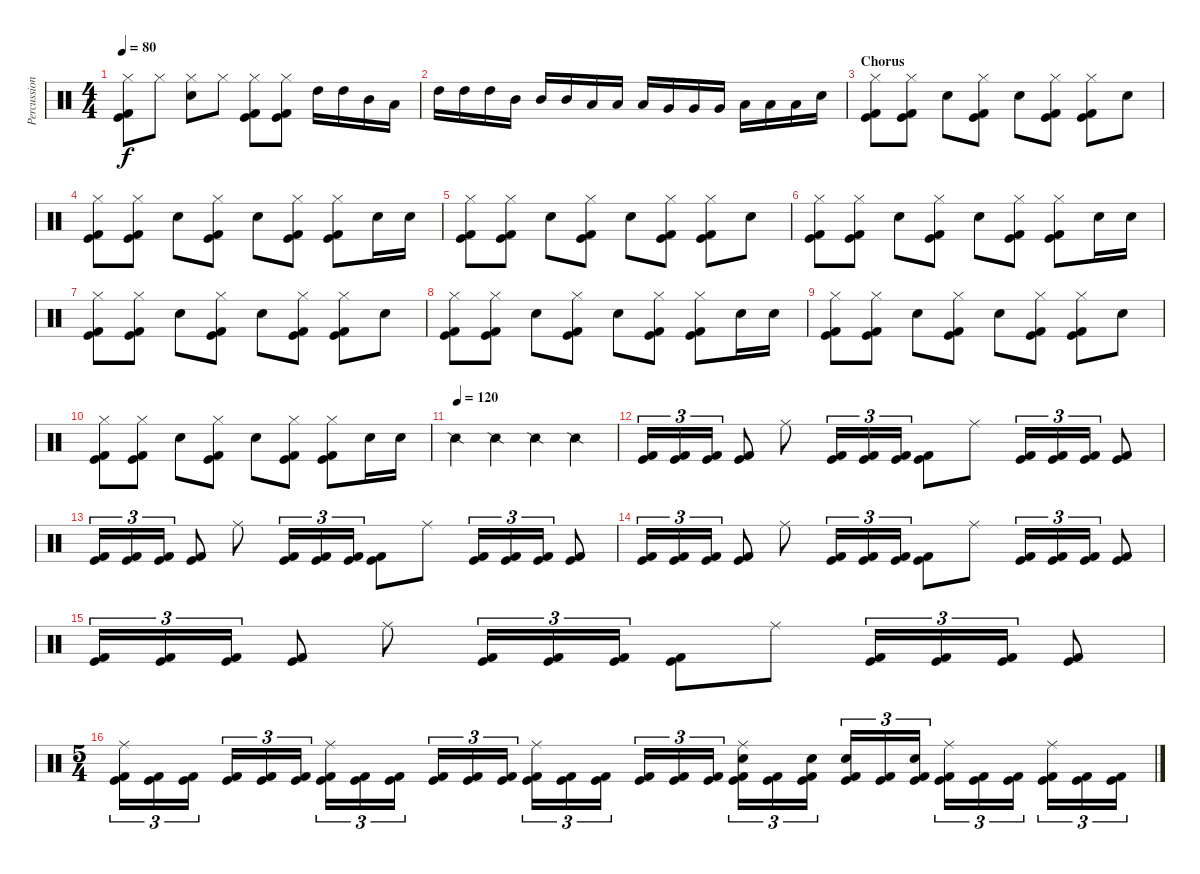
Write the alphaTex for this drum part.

\track ("Percussion" "Percussion") {instrument percussion}
\staff {score}
\articulation defaults
\ts (4 4)
\tempo 80
\clef neutral
\ks c
("Hi-Hat (closed)" "Kick (hit) 2" "Kick (hit)").8{dy f} "Hi-Hat (closed)".8 ("Hi-Hat (closed)" "Snare (hit) 2").8 "Hi-Hat (closed)".8 ("Hi-Hat (closed)" "Kick (hit) 2" "Kick (hit)").8 ("Hi-Hat (closed)" "Kick (hit) 2" "Kick (hit)").8 "High Tom (hit)".16 "High Tom (hit)".16 "Mid Tom (hit)".16 "Low Tom (hit)".16 |
"High Tom (hit)".16 "High Tom (hit)".16 "High Tom (hit)".16 "Mid Tom (hit)".16 "Mid Tom (hit)".16 "Mid Tom (hit)".16 "Low Tom (hit)".16 "Low Tom (hit)".16 "Low Tom (hit)".16 "Very Low Tom (hit)".16 "Very Low Tom (hit)".16 "Very Low Tom (hit)".16 "Low Floor Tom (hit)".16 "Low Floor Tom (hit)".16 "Low Floor Tom (hit)".16 "Snare (hit) 2".16 |
\section ("" "Chorus")
("Hi-Hat (closed)" "Kick (hit) 2" "Kick (hit)").8 ("Hi-Hat (closed)" "Kick (hit) 2" "Kick (hit)").8 "Snare (hit) 2".8 ("Hi-Hat (closed)" "Kick (hit) 2" "Kick (hit)").8 "Snare (hit) 2".8 ("Hi-Hat (closed)" "Kick (hit) 2" "Kick (hit)").8 ("Hi-Hat (closed)" "Kick (hit) 2" "Kick (hit)").8 "Snare (hit) 2".8 |
("Hi-Hat (closed)" "Kick (hit) 2" "Kick (hit)").8 ("Hi-Hat (closed)" "Kick (hit) 2" "Kick (hit)").8 "Snare (hit) 2".8 ("Hi-Hat (closed)" "Kick (hit) 2" "Kick (hit)").8 "Snare (hit) 2".8 ("Hi-Hat (closed)" "Kick (hit) 2" "Kick (hit)").8 ("Hi-Hat (closed)" "Kick (hit) 2" "Kick (hit)").8 "Snare (hit) 2".16 "Snare (hit) 2".16 |
("Hi-Hat (closed)" "Kick (hit) 2" "Kick (hit)").8 ("Hi-Hat (closed)" "Kick (hit) 2" "Kick (hit)").8 "Snare (hit) 2".8 ("Hi-Hat (closed)" "Kick (hit) 2" "Kick (hit)").8 "Snare (hit) 2".8 ("Hi-Hat (closed)" "Kick (hit) 2" "Kick (hit)").8 ("Hi-Hat (closed)" "Kick (hit) 2" "Kick (hit)").8 "Snare (hit) 2".8 |
("Hi-Hat (closed)" "Kick (hit) 2" "Kick (hit)").8 ("Hi-Hat (closed)" "Kick (hit) 2" "Kick (hit)").8 "Snare (hit) 2".8 ("Hi-Hat (closed)" "Kick (hit) 2" "Kick (hit)").8 "Snare (hit) 2".8 ("Hi-Hat (closed)" "Kick (hit) 2" "Kick (hit)").8 ("Hi-Hat (closed)" "Kick (hit) 2" "Kick (hit)").8 "Snare (hit) 2".16 "Snare (hit) 2".16 |
("Hi-Hat (closed)" "Kick (hit) 2" "Kick (hit)").8 ("Hi-Hat (closed)" "Kick (hit) 2" "Kick (hit)").8 "Snare (hit) 2".8 ("Hi-Hat (closed)" "Kick (hit) 2" "Kick (hit)").8 "Snare (hit) 2".8 ("Hi-Hat (closed)" "Kick (hit) 2" "Kick (hit)").8 ("Hi-Hat (closed)" "Kick (hit) 2" "Kick (hit)").8 "Snare (hit) 2".8 |
("Hi-Hat (closed)" "Kick (hit) 2" "Kick (hit)").8 ("Hi-Hat (closed)" "Kick (hit) 2" "Kick (hit)").8 "Snare (hit) 2".8 ("Hi-Hat (closed)" "Kick (hit) 2" "Kick (hit)").8 "Snare (hit) 2".8 ("Hi-Hat (closed)" "Kick (hit) 2" "Kick (hit)").8 ("Hi-Hat (closed)" "Kick (hit) 2" "Kick (hit)").8 "Snare (hit) 2".16 "Snare (hit) 2".16 |
("Hi-Hat (closed)" "Kick (hit) 2" "Kick (hit)").8 ("Hi-Hat (closed)" "Kick (hit) 2" "Kick (hit)").8 "Snare (hit) 2".8 ("Hi-Hat (closed)" "Kick (hit) 2" "Kick (hit)").8 "Snare (hit) 2".8 ("Hi-Hat (closed)" "Kick (hit) 2" "Kick (hit)").8 ("Hi-Hat (closed)" "Kick (hit) 2" "Kick (hit)").8 "Snare (hit) 2".8 |
("Hi-Hat (closed)" "Kick (hit) 2" "Kick (hit)").8 ("Hi-Hat (closed)" "Kick (hit) 2" "Kick (hit)").8 "Snare (hit) 2".8 ("Hi-Hat (closed)" "Kick (hit) 2" "Kick (hit)").8 "Snare (hit) 2".8 ("Hi-Hat (closed)" "Kick (hit) 2" "Kick (hit)").8 ("Hi-Hat (closed)" "Kick (hit) 2" "Kick (hit)").8 "Snare (hit) 2".16 "Snare (hit) 2".16 |
\tempo (120)
"Snare (side stick) 2".4 "Snare (side stick) 2".4 "Snare (side stick) 2".4 "Snare (side stick) 2".4 |
("Kick (hit) 2" "Kick (hit)").16{tu (3 2)} ("Kick (hit) 2" "Kick (hit)").16{tu (3 2)} ("Kick (hit) 2" "Kick (hit)").16{tu (3 2)} ("Kick (hit) 2" "Kick (hit)").8 "Ride (middle)".8 ("Kick (hit) 2" "Kick (hit)").16{tu (3 2)} ("Kick (hit) 2" "Kick (hit)").16{tu (3 2)} ("Kick (hit) 2" "Kick (hit)").16{tu (3 2)} ("Kick (hit) 2" "Kick (hit)").8 "Ride (middle)".8 ("Kick (hit) 2" "Kick (hit)").16{tu (3 2)} ("Kick (hit) 2" "Kick (hit)").16{tu (3 2)} ("Kick (hit) 2" "Kick (hit)").16{tu (3 2)} ("Kick (hit) 2" "Kick (hit)").8 |
("Kick (hit) 2" "Kick (hit)").16{tu (3 2)} ("Kick (hit) 2" "Kick (hit)").16{tu (3 2)} ("Kick (hit) 2" "Kick (hit)").16{tu (3 2)} ("Kick (hit) 2" "Kick (hit)").8 "Ride (middle)".8 ("Kick (hit) 2" "Kick (hit)").16{tu (3 2)} ("Kick (hit) 2" "Kick (hit)").16{tu (3 2)} ("Kick (hit) 2" "Kick (hit)").16{tu (3 2)} ("Kick (hit) 2" "Kick (hit)").8 "Ride (middle)".8 ("Kick (hit) 2" "Kick (hit)").16{tu (3 2)} ("Kick (hit) 2" "Kick (hit)").16{tu (3 2)} ("Kick (hit) 2" "Kick (hit)").16{tu (3 2)} ("Kick (hit) 2" "Kick (hit)").8 |
("Kick (hit) 2" "Kick (hit)").16{tu (3 2)} ("Kick (hit) 2" "Kick (hit)").16{tu (3 2)} ("Kick (hit) 2" "Kick (hit)").16{tu (3 2)} ("Kick (hit) 2" "Kick (hit)").8 "Ride (middle)".8 ("Kick (hit) 2" "Kick (hit)").16{tu (3 2)} ("Kick (hit) 2" "Kick (hit)").16{tu (3 2)} ("Kick (hit) 2" "Kick (hit)").16{tu (3 2)} ("Kick (hit) 2" "Kick (hit)").8 "Ride (middle)".8 ("Kick (hit) 2" "Kick (hit)").16{tu (3 2)} ("Kick (hit) 2" "Kick (hit)").16{tu (3 2)} ("Kick (hit) 2" "Kick (hit)").16{tu (3 2)} ("Kick (hit) 2" "Kick (hit)").8 |
("Kick (hit) 2" "Kick (hit)").16{tu (3 2)} ("Kick (hit) 2" "Kick (hit)").16{tu (3 2)} ("Kick (hit) 2" "Kick (hit)").16{tu (3 2)} ("Kick (hit) 2" "Kick (hit)").8 "Ride (middle)".8 ("Kick (hit) 2" "Kick (hit)").16{tu (3 2)} ("Kick (hit) 2" "Kick (hit)").16{tu (3 2)} ("Kick (hit) 2" "Kick (hit)").16{tu (3 2)} ("Kick (hit) 2" "Kick (hit)").8 "Ride (middle)".8 ("Kick (hit) 2" "Kick (hit)").16{tu (3 2)} ("Kick (hit) 2" "Kick (hit)").16{tu (3 2)} ("Kick (hit) 2" "Kick (hit)").16{tu (3 2)} ("Kick (hit) 2" "Kick (hit)").8 |
\ts (5 4)
("Ride (middle)" "Kick (hit) 2" "Kick (hit)").16{tu (3 2)} ("Kick (hit) 2" "Kick (hit)").16{tu (3 2)} ("Kick (hit) 2" "Kick (hit)").16{tu (3 2)} ("Kick (hit) 2" "Kick (hit)").16{tu (3 2)} ("Kick (hit) 2" "Kick (hit)").16{tu (3 2)} ("Kick (hit) 2" "Kick (hit)").16{tu (3 2)} ("Ride (middle)" "Kick (hit) 2" "Kick (hit)").16{tu (3 2)} ("Kick (hit) 2" "Kick (hit)").16{tu (3 2)} ("Kick (hit) 2" "Kick (hit)").16{tu (3 2)} ("Kick (hit) 2" "Kick (hit)").16{tu (3 2)} ("Kick (hit) 2" "Kick (hit)").16{tu (3 2)} ("Kick (hit) 2" "Kick (hit)").16{tu (3 2)} ("Ride (middle)" "Kick (hit) 2" "Kick (hit)").16{tu (3 2)} ("Kick (hit) 2" "Kick (hit)").16{tu (3 2)} ("Kick (hit) 2" "Kick (hit)").16{tu (3 2)} ("Kick (hit) 2" "Kick (hit)").16{tu (3 2)} ("Kick (hit) 2" "Kick (hit)").16{tu (3 2)} ("Kick (hit) 2" "Kick (hit)").16{tu (3 2)} ("Ride (middle)" "Snare (hit) 2" "Kick (hit) 2" "Kick (hit)").16{tu (3 2)} ("Kick (hit) 2" "Kick (hit)").16{tu (3 2)} ("Snare (hit) 2" "Kick (hit) 2" "Kick (hit)").16{tu (3 2)} ("Snare (hit) 2" "Kick (hit) 2" "Kick (hit)").16{tu (3 2)} ("Kick (hit) 2" "Kick (hit)").16{tu (3 2)} ("Snare (hit) 2" "Kick (hit) 2" "Kick (hit)").16{tu (3 2)} ("Ride (middle)" "Kick (hit) 2" "Kick (hit)").16{tu (3 2)} ("Kick (hit) 2" "Kick (hit)").16{tu (3 2)} ("Kick (hit) 2" "Kick (hit)").16{tu (3 2)} ("Ride (middle)" "Kick (hit) 2" "Kick (hit)").16{tu (3 2)} ("Kick (hit) 2" "Kick (hit)").16{tu (3 2)} ("Kick (hit) 2" "Kick (hit)").16{tu (3 2)}
